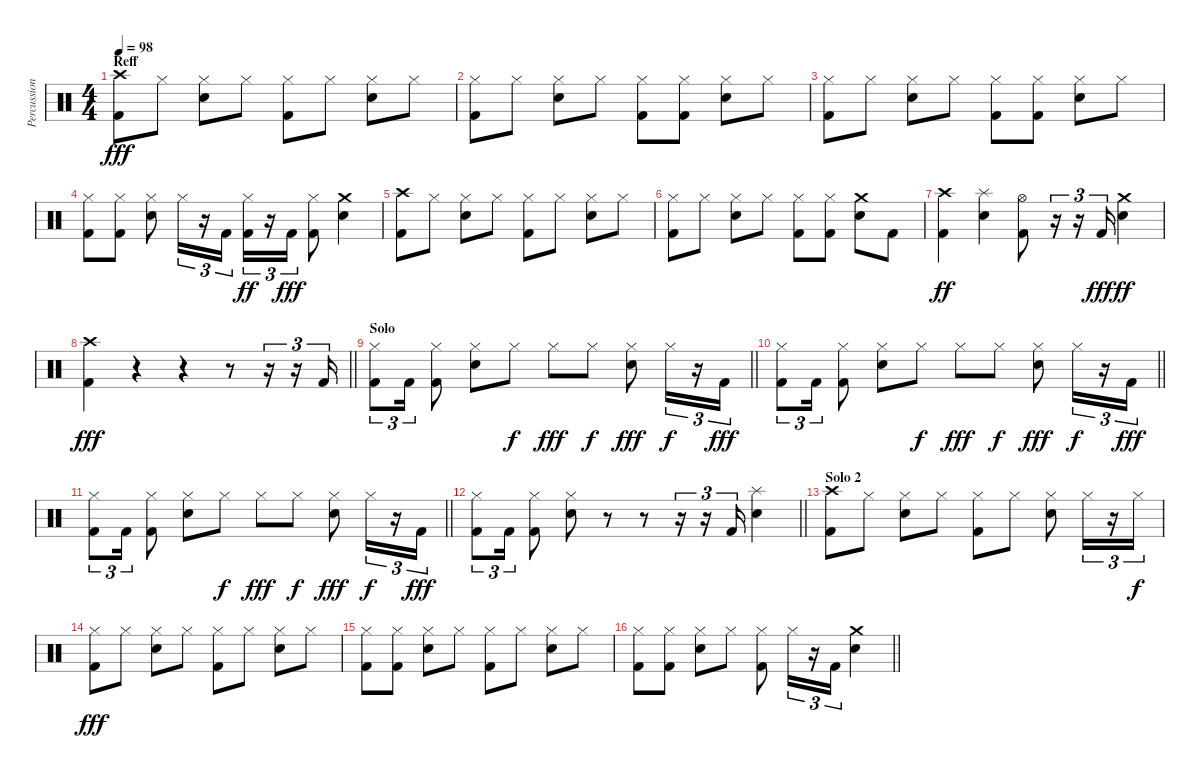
\track ("Percussion" "Percussion") {instrument percussion}
\staff {score}
\articulation defaults
\ts (4 4)
\section ("" "Reff")
\tempo 98
\clef neutral
\ks c
("Crash high (hit)" "Kick (hit) 2").8{dy fff} "Hi-Hat (closed)".8 ("Hi-Hat (closed)" "Snare (hit) 2").8 "Hi-Hat (closed)".8 ("Hi-Hat (closed)" "Kick (hit) 2").8 "Hi-Hat (closed)".8 ("Hi-Hat (closed)" "Snare (hit) 2").8 "Hi-Hat (closed)".8 |
("Hi-Hat (closed)" "Kick (hit) 2").8 "Hi-Hat (closed)".8 ("Hi-Hat (closed)" "Snare (hit) 2").8 "Hi-Hat (closed)".8 ("Hi-Hat (closed)" "Kick (hit) 2").8 ("Hi-Hat (closed)" "Kick (hit) 2").8 ("Hi-Hat (closed)" "Snare (hit) 2").8 "Hi-Hat (closed)".8 |
("Hi-Hat (closed)" "Kick (hit) 2").8 "Hi-Hat (closed)".8 ("Hi-Hat (closed)" "Snare (hit) 2").8 "Hi-Hat (closed)".8 ("Hi-Hat (closed)" "Kick (hit) 2").8 ("Hi-Hat (closed)" "Kick (hit) 2").8 ("Hi-Hat (closed)" "Snare (hit) 2").8 "Hi-Hat (closed)".8 |
("Hi-Hat (closed)" "Kick (hit) 2").8 ("Hi-Hat (closed)" "Kick (hit) 2").8 ("Hi-Hat (closed)" "Snare (hit) 2").8 "Hi-Hat (closed)".16{tu (3 2)} r.16{tu (3 2)} "Kick (hit) 2".16{tu (3 2)} ("Hi-Hat (closed)" "Kick (hit) 2").16{tu (3 2) dy ff} r.16{tu (3 2)} "Kick (hit) 2".16{tu (3 2) dy fff} ("Hi-Hat (closed)" "Kick (hit) 2").8 ("Crash medium (hit)" "Snare (hit) 2").4 |
("Crash high (hit)" "Kick (hit) 2").8 "Hi-Hat (closed)".8 ("Hi-Hat (closed)" "Snare (hit) 2").8 "Hi-Hat (closed)".8 ("Hi-Hat (closed)" "Kick (hit) 2").8 "Hi-Hat (closed)".8 ("Hi-Hat (closed)" "Snare (hit) 2").8 "Hi-Hat (closed)".8 |
("Hi-Hat (closed)" "Kick (hit) 2").8 "Hi-Hat (closed)".8 ("Hi-Hat (closed)" "Snare (hit) 2").8 "Hi-Hat (closed)".8 ("Hi-Hat (closed)" "Kick (hit) 2").8 ("Hi-Hat (closed)" "Kick (hit) 2").8 ("Crash medium (hit)" "Snare (hit) 2").8 "Kick (hit) 2".8 |
("Crash high (hit)" "Kick (hit) 2").4{dy ff} ("Splash (hit)" "Snare (hit) 2").4 ("Hi-Hat (open)" "Kick (hit) 2").8 r.16{tu (3 2)} r.16{tu (3 2)} "Kick (hit) 2".16{tu (3 2) dy fff} ("Crash medium (hit)" "Snare (hit) 2").4{dy ff} |
\barLineRight lightlight
("Crash high (hit)" "Kick (hit) 2").4{dy fff} r.4 r.4 r.8 r.16{tu (3 2)} r.16{tu (3 2)} "Kick (hit) 2".16{tu (3 2)} |
\section ("" "Solo")
\barLineRight lightlight
("Hi-Hat (closed)" "Kick (hit) 2").8{tu (3 2)} "Kick (hit) 2".16{tu (3 2)} ("Hi-Hat (closed)" "Kick (hit) 2").8 ("Hi-Hat (closed)" "Snare (hit) 2").8 "Hi-Hat (closed)".8{dy f} "Hi-Hat (closed)".8{dy fff} "Hi-Hat (closed)".8{dy f} ("Hi-Hat (closed)" "Snare (hit) 2").8{dy fff} "Hi-Hat (closed)".16{tu (3 2) dy f} r.16{tu (3 2)} "Kick (hit) 2".16{tu (3 2) dy fff} |
\barLineRight lightlight
("Hi-Hat (closed)" "Kick (hit) 2").8{tu (3 2)} "Kick (hit) 2".16{tu (3 2)} ("Hi-Hat (closed)" "Kick (hit) 2").8 ("Hi-Hat (closed)" "Snare (hit) 2").8 "Hi-Hat (closed)".8{dy f} "Hi-Hat (closed)".8{dy fff} "Hi-Hat (closed)".8{dy f} ("Hi-Hat (closed)" "Snare (hit) 2").8{dy fff} "Hi-Hat (closed)".16{tu (3 2) dy f} r.16{tu (3 2)} "Kick (hit) 2".16{tu (3 2) dy fff} |
\barLineRight lightlight
("Hi-Hat (closed)" "Kick (hit) 2").8{tu (3 2)} "Kick (hit) 2".16{tu (3 2)} ("Hi-Hat (closed)" "Kick (hit) 2").8 ("Hi-Hat (closed)" "Snare (hit) 2").8 "Hi-Hat (closed)".8{dy f} "Hi-Hat (closed)".8{dy fff} "Hi-Hat (closed)".8{dy f} ("Hi-Hat (closed)" "Snare (hit) 2").8{dy fff} "Hi-Hat (closed)".16{tu (3 2) dy f} r.16{tu (3 2)} "Kick (hit) 2".16{tu (3 2) dy fff} |
\barLineRight lightlight
("Hi-Hat (closed)" "Kick (hit) 2").8{tu (3 2)} "Kick (hit) 2".16{tu (3 2)} ("Hi-Hat (closed)" "Kick (hit) 2").8 ("Hi-Hat (closed)" "Snare (hit) 2").8 r.8 r.8 r.16{tu (3 2)} r.16{tu (3 2)} "Kick (hit) 2".16{tu (3 2)} ("Splash (hit)" "Snare (hit) 2").4 |
\section ("" "Solo 2")
("Crash high (hit)" "Kick (hit) 2").8 "Hi-Hat (closed)".8 ("Hi-Hat (closed)" "Snare (hit) 2").8 "Hi-Hat (closed)".8 ("Hi-Hat (closed)" "Kick (hit) 2").8 "Hi-Hat (closed)".8 ("Hi-Hat (closed)" "Snare (hit) 2").8 "Hi-Hat (closed)".16{tu (3 2)} r.16{tu (3 2)} "Hi-Hat (closed)".16{tu (3 2) dy f} |
("Hi-Hat (closed)" "Kick (hit) 2").8{dy fff} "Hi-Hat (closed)".8 ("Hi-Hat (closed)" "Snare (hit) 2").8 "Hi-Hat (closed)".8 ("Hi-Hat (closed)" "Kick (hit) 2").8 "Hi-Hat (closed)".8 ("Hi-Hat (closed)" "Snare (hit) 2").8 "Hi-Hat (closed)".8 |
("Hi-Hat (closed)" "Kick (hit) 2").8 ("Hi-Hat (closed)" "Kick (hit) 2").8 ("Hi-Hat (closed)" "Snare (hit) 2").8 "Hi-Hat (closed)".8 ("Hi-Hat (closed)" "Kick (hit) 2").8 "Hi-Hat (closed)".8 ("Hi-Hat (closed)" "Snare (hit) 2").8 "Hi-Hat (closed)".8 |
\barLineRight lightlight
("Hi-Hat (closed)" "Kick (hit) 2").8 ("Hi-Hat (closed)" "Kick (hit) 2").8 ("Hi-Hat (closed)" "Snare (hit) 2").8 "Hi-Hat (closed)".8 ("Hi-Hat (closed)" "Kick (hit) 2").8 "Hi-Hat (closed)".16{tu (3 2)} r.16{tu (3 2)} "Kick (hit) 2".16{tu (3 2)} ("Crash medium (hit)" "Snare (hit) 2").4
